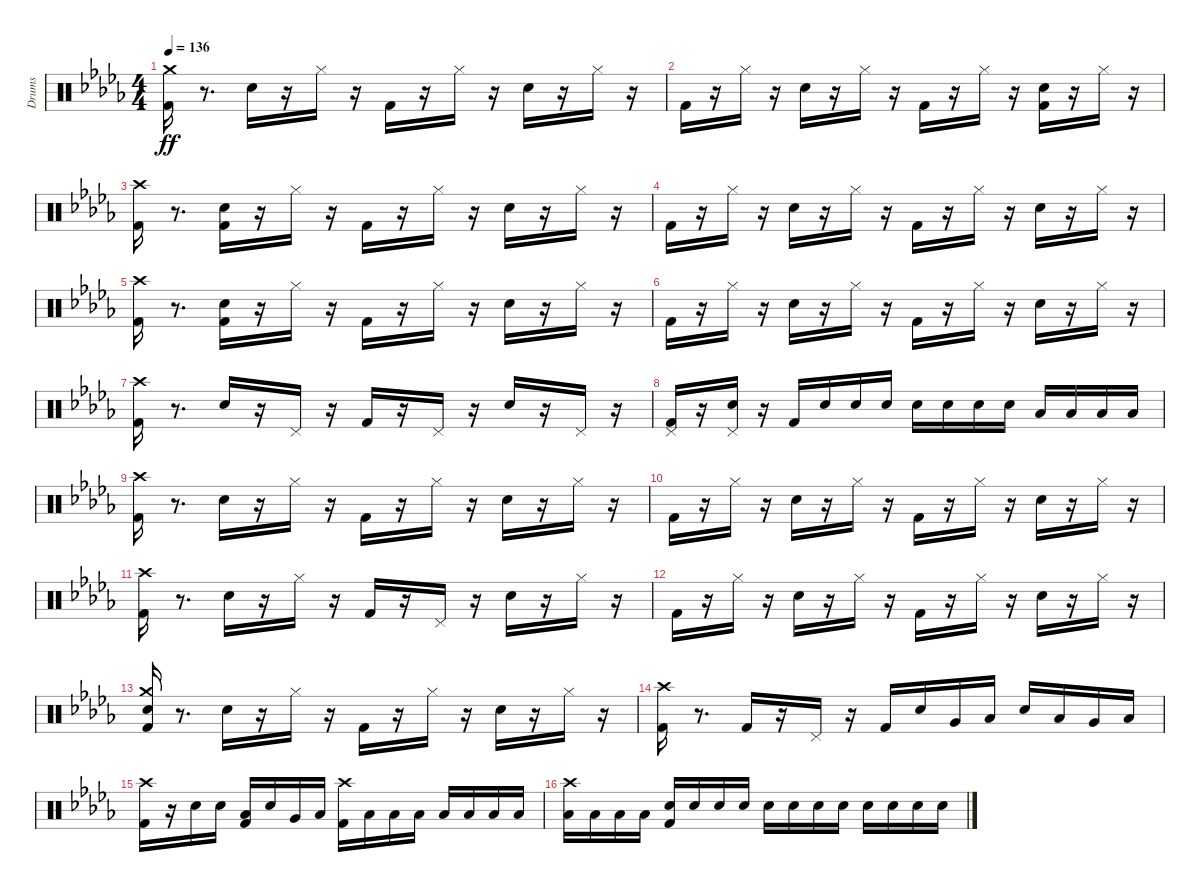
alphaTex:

\track ("Drums" "Drums") {instrument percussion}
\staff {score}
\articulation defaults
\ts (4 4)
\tempo 136
\clef neutral
\ks db
("Kick (hit) 2" "Crash medium (hit)").16{dy ff} r.8{d} "Electric Snare (hit)".16 r.16 "Hi-Hat (closed)".16 r.16 "Kick (hit) 2".16 r.16 "Hi-Hat (closed)".16 r.16 "Electric Snare (hit)".16 r.16 "Hi-Hat (closed)".16 r.16 |
"Kick (hit) 2".16 r.16 "Hi-Hat (closed)".16 r.16 "Electric Snare (hit)".16 r.16 "Hi-Hat (closed)".16 r.16 "Kick (hit) 2".16 r.16 "Hi-Hat (closed)".16 r.16 ("Kick (hit) 2" "Electric Snare (hit)").16 r.16 "Hi-Hat (closed)".16 r.16 |
("Kick (hit) 2" "Crash high (hit)").16 r.8{d} ("Kick (hit) 2" "Electric Snare (hit)").16 r.16 "Hi-Hat (closed)".16 r.16 "Kick (hit) 2".16 r.16 "Hi-Hat (closed)".16 r.16 "Electric Snare (hit)".16 r.16 "Hi-Hat (closed)".16 r.16 |
"Kick (hit) 2".16 r.16 "Hi-Hat (closed)".16 r.16 "Electric Snare (hit)".16 r.16 "Hi-Hat (closed)".16 r.16 "Kick (hit) 2".16 r.16 "Hi-Hat (closed)".16 r.16 "Electric Snare (hit)".16 r.16 "Hi-Hat (closed)".16 r.16 |
("Kick (hit) 2" "Crash high (hit)").16 r.8{d} ("Kick (hit) 2" "Electric Snare (hit)").16 r.16 "Hi-Hat (closed)".16 r.16 "Kick (hit) 2".16 r.16 "Hi-Hat (closed)".16 r.16 "Electric Snare (hit)".16 r.16 "Hi-Hat (closed)".16 r.16 |
"Kick (hit) 2".16 r.16 "Hi-Hat (closed)".16 r.16 "Electric Snare (hit)".16 r.16 "Hi-Hat (closed)".16 r.16 "Kick (hit) 2".16 r.16 "Hi-Hat (closed)".16 r.16 "Electric Snare (hit)".16 r.16 "Hi-Hat (closed)".16 r.16 |
("Kick (hit) 2" "Crash high (hit)").16 r.8{d} "Electric Snare (hit)".16 r.16 "Pedal Hi-Hat (hit)".16 r.16 "Kick (hit) 2".16 r.16 "Pedal Hi-Hat (hit)".16 r.16 "Electric Snare (hit)".16 r.16 "Pedal Hi-Hat (hit)".16 r.16 |
("Kick (hit) 2" "Pedal Hi-Hat (hit)").16 r.16 ("Electric Snare (hit)" "Pedal Hi-Hat (hit)").16 r.16 "Kick (hit) 2".16 "Electric Snare (hit)".16 "Electric Snare (hit)".16 "Electric Snare (hit)".16 "Electric Snare (hit)".16 "Electric Snare (hit)".16 "Electric Snare (hit)".16 "Electric Snare (hit)".16 "Low Floor Tom (hit)".16 "Low Floor Tom (hit)".16 "Low Floor Tom (hit)".16 "Low Floor Tom (hit)".16 |
("Kick (hit) 2" "Crash high (hit)").16 r.8{d} "Electric Snare (hit)".16 r.16 "Hi-Hat (closed)".16 r.16 "Kick (hit) 2".16 r.16 "Hi-Hat (closed)".16 r.16 "Electric Snare (hit)".16 r.16 "Hi-Hat (closed)".16 r.16 |
"Kick (hit) 2".16 r.16 "Hi-Hat (closed)".16 r.16 "Electric Snare (hit)".16 r.16 "Hi-Hat (closed)".16 r.16 "Kick (hit) 2".16 r.16 "Hi-Hat (closed)".16 r.16 "Electric Snare (hit)".16 r.16 "Hi-Hat (closed)".16 r.16 |
("Kick (hit) 2" "Crash high (hit)").16 r.8{d} "Electric Snare (hit)".16 r.16 "Hi-Hat (closed)".16 r.16 "Kick (hit) 2".16 r.16 "Pedal Hi-Hat (hit)".16 r.16 "Electric Snare (hit)".16 r.16 "Hi-Hat (closed)".16 r.16 |
"Kick (hit) 2".16 r.16 "Hi-Hat (closed)".16 r.16 "Electric Snare (hit)".16 r.16 "Hi-Hat (closed)".16 r.16 "Kick (hit) 2".16 r.16 "Hi-Hat (closed)".16 r.16 "Electric Snare (hit)".16 r.16 "Hi-Hat (closed)".16 r.16 |
("Kick (hit) 2" "Electric Snare (hit)" "Crash medium (hit)").16 r.8{d} "Electric Snare (hit)".16 r.16 "Hi-Hat (closed)".16 r.16 "Kick (hit) 2".16 r.16 "Hi-Hat (closed)".16 r.16 "Electric Snare (hit)".16 r.16 "Hi-Hat (closed)".16 r.16 |
("Kick (hit) 2" "Crash high (hit)").16 r.8{d} "Kick (hit) 2".16 r.16 "Pedal Hi-Hat (hit)".16 r.16 "Kick (hit) 2".16 "Electric Snare (hit)".16 "Very Low Tom (hit)".16 "Low Floor Tom (hit)".16 "Electric Snare (hit)".16 "Low Tom (hit)".16 "Very Low Tom (hit)".16 "Low Floor Tom (hit)".16 |
("Kick (hit) 2" "Crash high (hit)").16 r.16 "Electric Snare (hit)".16 "Electric Snare (hit)".16 ("Kick (hit) 2" "Low Floor Tom (hit)").16 "Electric Snare (hit)".16 "Very Low Tom (hit)".16 "Low Floor Tom (hit)".16 ("Kick (hit) 2" "Crash high (hit)").16 "Low Floor Tom (hit)".16 "Low Floor Tom (hit)".16 "Low Floor Tom (hit)".16 "Low Floor Tom (hit)".16 "Low Floor Tom (hit)".16 "Low Floor Tom (hit)".16 "Low Floor Tom (hit)".16 |
("Low Floor Tom (hit)" "Crash high (hit)").16 "Low Floor Tom (hit)".16 "Low Floor Tom (hit)".16 "Low Floor Tom (hit)".16 ("Kick (hit) 2" "Electric Snare (hit)").16 "Electric Snare (hit)".16 "Electric Snare (hit)".16 "Electric Snare (hit)".16 "Electric Snare (hit)".16 "Electric Snare (hit)".16 "Electric Snare (hit)".16 "Electric Snare (hit)".16 "Electric Snare (hit)".16 "Electric Snare (hit)".16 "Electric Snare (hit)".16 "Electric Snare (hit)".16
